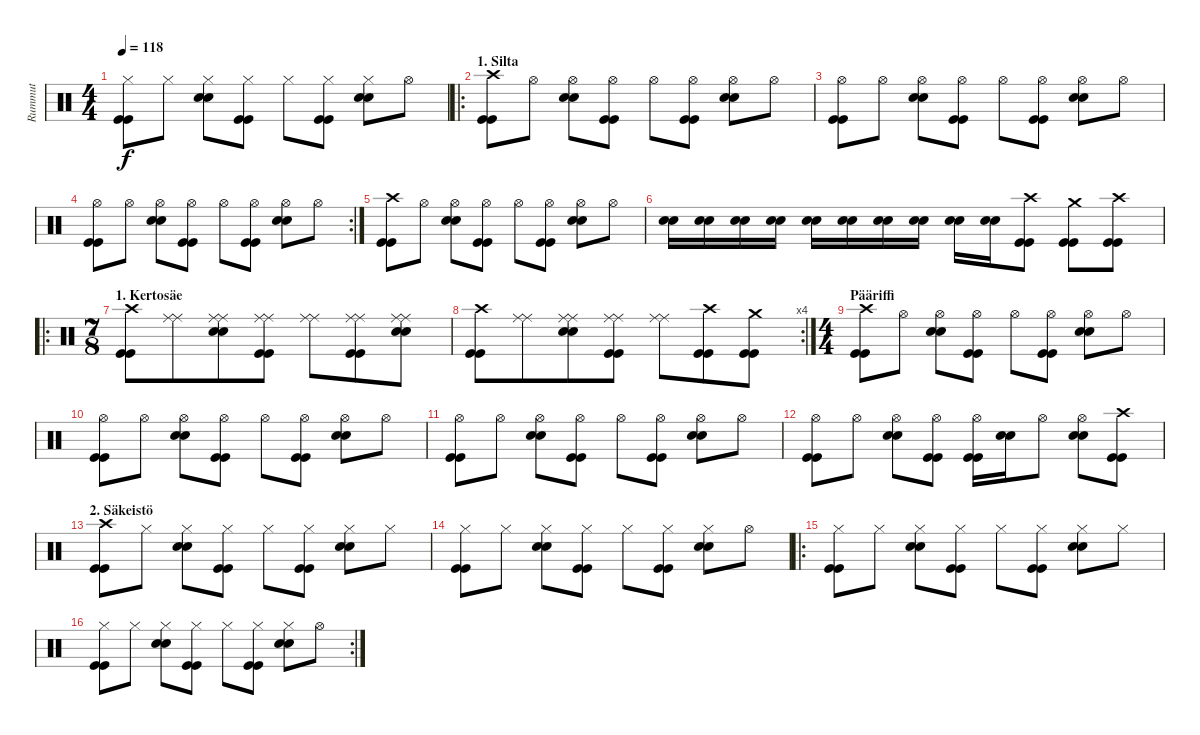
\track ("Rummut" "Rummut") {instrument percussion}
\staff {score}
\articulation defaults
\ts (4 4)
\tempo 118
\clef neutral
\ks c
("Hi-Hat (closed)" "Kick (hit)" "Kick (hit)").8{dy f} "Hi-Hat (closed)".8 ("Hi-Hat (closed)" "Snare (hit) 2" "Snare (hit) 2").8 ("Hi-Hat (closed)" "Kick (hit)" "Kick (hit)").8 "Hi-Hat (closed)".8 ("Hi-Hat (closed)" "Kick (hit)" "Kick (hit)").8 ("Hi-Hat (closed)" "Snare (hit) 2" "Snare (hit) 2").8 "Hi-Hat (open)".8 |
\ro
\section ("" "1. Silta")
("Crash high (hit)" "Kick (hit)" "Kick (hit)").8 "Hi-Hat (open)".8 ("Hi-Hat (open)" "Snare (hit) 2" "Snare (hit) 2").8 ("Hi-Hat (open)" "Kick (hit)" "Kick (hit)").8 "Hi-Hat (open)".8 ("Hi-Hat (open)" "Kick (hit)" "Kick (hit)").8 ("Hi-Hat (open)" "Snare (hit) 2" "Snare (hit) 2").8 "Hi-Hat (open)".8 |
("Hi-Hat (open)" "Kick (hit)" "Kick (hit)").8 "Hi-Hat (open)".8 ("Hi-Hat (open)" "Snare (hit) 2" "Snare (hit) 2").8 ("Hi-Hat (open)" "Kick (hit)" "Kick (hit)").8 "Hi-Hat (open)".8 ("Hi-Hat (open)" "Kick (hit)" "Kick (hit)").8 ("Hi-Hat (open)" "Snare (hit) 2" "Snare (hit) 2").8 "Hi-Hat (open)".8 |
\rc 2
("Hi-Hat (open)" "Kick (hit)" "Kick (hit)").8 "Hi-Hat (open)".8 ("Hi-Hat (open)" "Snare (hit) 2" "Snare (hit) 2").8 ("Hi-Hat (open)" "Kick (hit)" "Kick (hit)").8 "Hi-Hat (open)".8 ("Hi-Hat (open)" "Kick (hit)" "Kick (hit)").8 ("Hi-Hat (open)" "Snare (hit) 2" "Snare (hit) 2").8 "Hi-Hat (open)".8 |
("Crash high (hit)" "Kick (hit)" "Kick (hit)").8 "Hi-Hat (open)".8 ("Hi-Hat (open)" "Snare (hit) 2" "Snare (hit) 2").8 ("Hi-Hat (open)" "Kick (hit)" "Kick (hit)").8 "Hi-Hat (open)".8 ("Hi-Hat (open)" "Kick (hit)" "Kick (hit)").8 ("Hi-Hat (open)" "Snare (hit) 2" "Snare (hit) 2").8 "Hi-Hat (open)".8 |
("Snare (hit) 2" "Snare (hit) 2").16 ("Snare (hit) 2" "Snare (hit) 2").16 ("Snare (hit) 2" "Snare (hit) 2").16 ("Snare (hit) 2" "Snare (hit) 2").16 ("Snare (hit) 2" "Snare (hit) 2").16 ("Snare (hit) 2" "Snare (hit) 2").16 ("Snare (hit) 2" "Snare (hit) 2").16 ("Snare (hit) 2" "Snare (hit) 2").16 ("Snare (hit) 2" "Snare (hit) 2").16 ("Snare (hit) 2" "Snare (hit) 2").16 ("Crash high (hit)" "Kick (hit)" "Kick (hit)").8 ("Crash medium (hit)" "Kick (hit)" "Kick (hit)").8 ("Crash high (hit)" "Kick (hit)" "Kick (hit)").8 |
\ro
\ts (7 8)
\section ("" "1. Kertosäe")
("Crash high (hit)" "Kick (hit)" "Kick (hit)").8 ("Ride (middle)" "Ride (middle)").8 ("Ride (middle)" "Ride (middle)" "Snare (hit) 2" "Snare (hit) 2").8 ("Ride (middle)" "Ride (middle)" "Kick (hit)" "Kick (hit)").8 ("Ride (middle)" "Ride (middle)").8 ("Ride (middle)" "Ride (middle)" "Kick (hit)" "Kick (hit)").8 ("Ride (middle)" "Ride (middle)" "Snare (hit) 2" "Snare (hit) 2").8 |
\rc 4
("Crash high (hit)" "Kick (hit)" "Kick (hit)").8 ("Ride (middle)" "Ride (middle)").8 ("Ride (middle)" "Ride (middle)" "Snare (hit) 2" "Snare (hit) 2").8 ("Ride (middle)" "Ride (middle)" "Kick (hit)" "Kick (hit)").8 ("Ride (middle)" "Ride (middle)").8 ("Crash high (hit)" "Kick (hit)" "Kick (hit)").8 ("Crash medium (hit)" "Kick (hit)" "Kick (hit)").8 |
\ts (4 4)
\section ("" "Pääriffi")
("Crash high (hit)" "Kick (hit)" "Kick (hit)").8 "Hi-Hat (open)".8 ("Hi-Hat (open)" "Snare (hit) 2" "Snare (hit) 2").8 ("Hi-Hat (open)" "Kick (hit)" "Kick (hit)").8 "Hi-Hat (open)".8 ("Hi-Hat (open)" "Kick (hit)" "Kick (hit)").8 ("Hi-Hat (open)" "Snare (hit) 2" "Snare (hit) 2").8 "Hi-Hat (open)".8 |
("Hi-Hat (open)" "Kick (hit)" "Kick (hit)").8 "Hi-Hat (open)".8 ("Hi-Hat (open)" "Snare (hit) 2" "Snare (hit) 2").8 ("Hi-Hat (open)" "Kick (hit)" "Kick (hit)").8 "Hi-Hat (open)".8 ("Hi-Hat (open)" "Kick (hit)" "Kick (hit)").8 ("Hi-Hat (open)" "Snare (hit) 2" "Snare (hit) 2").8 "Hi-Hat (open)".8 |
("Hi-Hat (open)" "Kick (hit)" "Kick (hit)").8 "Hi-Hat (open)".8 ("Hi-Hat (open)" "Snare (hit) 2" "Snare (hit) 2").8 ("Hi-Hat (open)" "Kick (hit)" "Kick (hit)").8 "Hi-Hat (open)".8 ("Hi-Hat (open)" "Kick (hit)" "Kick (hit)").8 ("Hi-Hat (open)" "Snare (hit) 2" "Snare (hit) 2").8 "Hi-Hat (open)".8 |
("Hi-Hat (open)" "Kick (hit)" "Kick (hit)").8 "Hi-Hat (open)".8 ("Hi-Hat (open)" "Snare (hit) 2" "Snare (hit) 2").8 ("Hi-Hat (open)" "Kick (hit)" "Kick (hit)").8 ("Hi-Hat (open)" "Kick (hit)" "Kick (hit)").16 ("Snare (hit) 2" "Snare (hit) 2").16 "Hi-Hat (open)".8 ("Hi-Hat (open)" "Snare (hit) 2" "Snare (hit) 2").8 ("Crash high (hit)" "Kick (hit)" "Kick (hit)").8 |
\section ("" "2. Säkeistö")
("Crash high (hit)" "Kick (hit)" "Kick (hit)").8 "Hi-Hat (closed)".8 ("Hi-Hat (closed)" "Snare (hit) 2" "Snare (hit) 2").8 ("Hi-Hat (closed)" "Kick (hit)" "Kick (hit)").8 "Hi-Hat (closed)".8 ("Hi-Hat (closed)" "Kick (hit)" "Kick (hit)").8 ("Hi-Hat (closed)" "Snare (hit) 2" "Snare (hit) 2").8 "Hi-Hat (closed)".8 |
("Hi-Hat (closed)" "Kick (hit)" "Kick (hit)").8 "Hi-Hat (closed)".8 ("Hi-Hat (closed)" "Snare (hit) 2" "Snare (hit) 2").8 ("Hi-Hat (closed)" "Kick (hit)" "Kick (hit)").8 "Hi-Hat (closed)".8 ("Hi-Hat (closed)" "Kick (hit)" "Kick (hit)").8 ("Hi-Hat (closed)" "Snare (hit) 2" "Snare (hit) 2").8 "Hi-Hat (open)".8 |
\ro
("Hi-Hat (closed)" "Kick (hit)" "Kick (hit)").8 "Hi-Hat (closed)".8 ("Hi-Hat (closed)" "Snare (hit) 2" "Snare (hit) 2").8 ("Hi-Hat (closed)" "Kick (hit)" "Kick (hit)").8 "Hi-Hat (closed)".8 ("Hi-Hat (closed)" "Kick (hit)" "Kick (hit)").8 ("Hi-Hat (closed)" "Snare (hit) 2" "Snare (hit) 2").8 "Hi-Hat (closed)".8 |
\rc 2
("Hi-Hat (closed)" "Kick (hit)" "Kick (hit)").8 "Hi-Hat (closed)".8 ("Hi-Hat (closed)" "Snare (hit) 2" "Snare (hit) 2").8 ("Hi-Hat (closed)" "Kick (hit)" "Kick (hit)").8 "Hi-Hat (closed)".8 ("Hi-Hat (closed)" "Kick (hit)" "Kick (hit)").8 ("Hi-Hat (closed)" "Snare (hit) 2" "Snare (hit) 2").8 "Hi-Hat (open)".8
